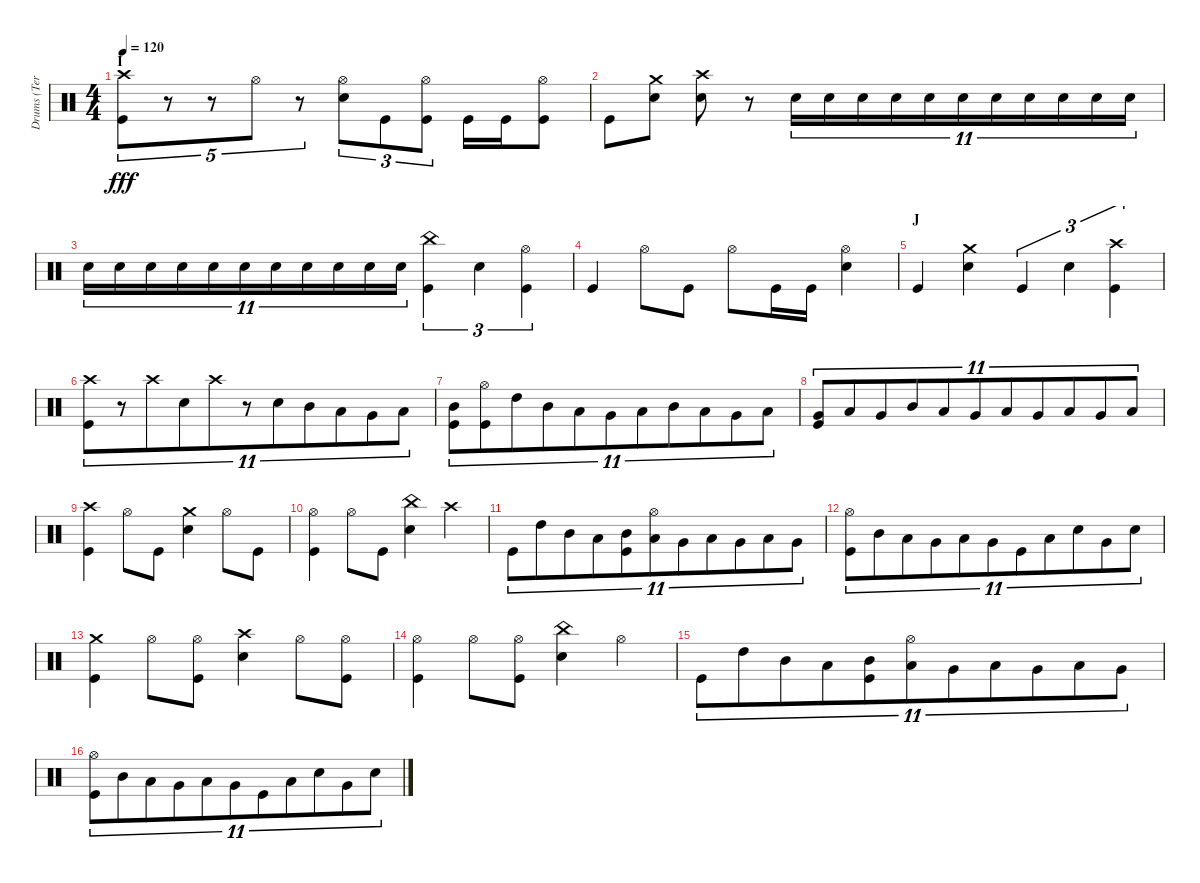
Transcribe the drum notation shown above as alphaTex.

\track ("Drums (Terry Bozzio)" "Drums (Ter") {instrument percussion}
\staff {score}
\articulation defaults
\ts (4 4)
\section ("" "I")
\tempo 120
\clef neutral
\ks c
("Crash high (hit)" "Kick (hit)").8{tu (5 4) dy fff} r.8{tu (5 4)} r.8{tu (5 4)} "Hi-Hat (open)".8{tu (5 4)} r.8{tu (5 4)} ("Hi-Hat (open)" "Snare (hit) 2").8{tu (3 2)} "Kick (hit)".8{tu (3 2)} ("Hi-Hat (open)" "Kick (hit)").8{tu (3 2)} "Kick (hit)".16 "Kick (hit)".16 ("Hi-Hat (open)" "Kick (hit)").8 |
"Kick (hit)".8 ("Crash medium (hit)" "Snare (hit) 2").8 ("Crash high (hit)" "Snare (hit) 2").8 r.8 "Snare (hit) 2".16{tu (11 8)} "Snare (hit) 2".16{tu (11 8)} "Snare (hit) 2".16{tu (11 8)} "Snare (hit) 2".16{tu (11 8)} "Snare (hit) 2".16{tu (11 8)} "Snare (hit) 2".16{tu (11 8)} "Snare (hit) 2".16{tu (11 8)} "Snare (hit) 2".16{tu (11 8)} "Snare (hit) 2".16{tu (11 8)} "Snare (hit) 2".16{tu (11 8)} "Snare (hit) 2".16{tu (11 8)} |
"Snare (hit) 2".16{tu (11 8)} "Snare (hit) 2".16{tu (11 8)} "Snare (hit) 2".16{tu (11 8)} "Snare (hit) 2".16{tu (11 8)} "Snare (hit) 2".16{tu (11 8)} "Snare (hit) 2".16{tu (11 8)} "Snare (hit) 2".16{tu (11 8)} "Snare (hit) 2".16{tu (11 8)} "Snare (hit) 2".16{tu (11 8)} "Snare (hit) 2".16{tu (11 8)} "Snare (hit) 2".16{tu (11 8)} ("China (hit)" "Kick (hit)").4{tu (3 2)} "Snare (hit) 2".4{tu (3 2)} ("Hi-Hat (open)" "Kick (hit)").4{tu (3 2)} |
"Kick (hit)".4 "Hi-Hat (open)".8 "Kick (hit)".8 "Hi-Hat (open)".8 "Kick (hit)".16 "Kick (hit)".16 ("Hi-Hat (open)" "Snare (hit) 2").4 |
\section ("" "J")
"Kick (hit)".4 ("Crash medium (hit)" "Snare (hit) 2").4 "Kick (hit)".4{tu (3 2)} "Snare (hit) 2".4{tu (3 2)} ("Crash high (hit)" "Kick (hit)").4{tu (3 2)} |
("Crash high (hit)" "Kick (hit)").8{tu (11 8)} r.8{tu (11 8)} "Crash high (hit)".8{tu (11 8)} "Snare (hit) 2".8{tu (11 8)} "Crash high (hit)".8{tu (11 8)} r.8{tu (11 8)} "Snare (hit) 2".8{tu (11 8)} "Mid Tom (hit)".8{tu (11 8)} "Low Tom (hit)".8{tu (11 8)} "Very Low Tom (hit)".8{tu (11 8)} "Low Tom (hit)".8{tu (11 8)} |
("Mid Tom (hit)" "Kick (hit)").8{tu (11 8)} ("Hi-Hat (open)" "Kick (hit)").8{tu (11 8)} "High Tom (hit)".8{tu (11 8)} "Mid Tom (hit)".8{tu (11 8)} "Low Tom (hit)".8{tu (11 8)} "Very Low Tom (hit)".8{tu (11 8)} "Low Tom (hit)".8{tu (11 8)} "Mid Tom (hit)".8{tu (11 8)} "Low Tom (hit)".8{tu (11 8)} "Very Low Tom (hit)".8{tu (11 8)} "Low Floor Tom (hit)".8{tu (11 8)} |
("Very Low Tom (hit)" "Kick (hit)").8{tu (11 8)} "Low Tom (hit)".8{tu (11 8)} "Very Low Tom (hit)".8{tu (11 8)} "Mid Tom (hit)".8{tu (11 8)} "Low Tom (hit)".8{tu (11 8)} "Very Low Tom (hit)".8{tu (11 8)} "Low Floor Tom (hit)".8{tu (11 8)} "Very Low Tom (hit)".8{tu (11 8)} "Low Tom (hit)".8{tu (11 8)} "Very Low Tom (hit)".8{tu (11 8)} "Low Floor Tom (hit)".8{tu (11 8)} |
("Crash high (hit)" "Kick (hit)").4 "Hi-Hat (open)".8 "Kick (hit)".8 ("Crash medium (hit)" "Snare (hit) 2").4 "Hi-Hat (open)".8 "Kick (hit)".8 |
("Hi-Hat (open)" "Kick (hit)").4 "Hi-Hat (open)".8 "Kick (hit)".8 ("China (hit)" "Snare (hit) 2").4 "Crash high (hit)".4 |
"Kick (hit)".8{tu (11 8)} "High Tom (hit)".8{tu (11 8)} "Mid Tom (hit)".8{tu (11 8)} "Low Tom (hit)".8{tu (11 8)} ("Mid Tom (hit)" "Kick (hit)").8{tu (11 8)} ("Hi-Hat (open)" "Low Tom (hit)").8{tu (11 8)} "Very Low Tom (hit)".8{tu (11 8)} "Low Floor Tom (hit)".8{tu (11 8)} "Very Low Tom (hit)".8{tu (11 8)} "Low Tom (hit)".8{tu (11 8)} "Very Low Tom (hit)".8{tu (11 8)} |
("Hi-Hat (open)" "Kick (hit)").8{tu (11 8)} "Mid Tom (hit)".8{tu (11 8)} "Low Tom (hit)".8{tu (11 8)} "Very Low Tom (hit)".8{tu (11 8)} "Low Floor Tom (hit)".8{tu (11 8)} "Very Low Tom (hit)".8{tu (11 8)} "Kick (hit)".8{tu (11 8)} "Low Floor Tom (hit)".8{tu (11 8)} "Snare (hit) 2".8{tu (11 8)} "Very Low Tom (hit)".8{tu (11 8)} "Snare (hit) 2".8{tu (11 8)} |
("Crash medium (hit)" "Kick (hit)").4 "Hi-Hat (open)".8 ("Hi-Hat (open)" "Kick (hit)").8 ("Crash high (hit)" "Snare (hit) 2").4 "Hi-Hat (open)".8 ("Hi-Hat (open)" "Kick (hit)").8 |
("Hi-Hat (open)" "Kick (hit)").4 "Hi-Hat (open)".8 ("Hi-Hat (open)" "Kick (hit)").8 ("China (hit)" "Snare (hit) 2").4 "Hi-Hat (open)".4 |
"Kick (hit)".8{tu (11 8)} "High Tom (hit)".8{tu (11 8)} "Mid Tom (hit)".8{tu (11 8)} "Low Tom (hit)".8{tu (11 8)} ("Mid Tom (hit)" "Kick (hit)").8{tu (11 8)} ("Hi-Hat (open)" "Low Tom (hit)").8{tu (11 8)} "Very Low Tom (hit)".8{tu (11 8)} "Low Floor Tom (hit)".8{tu (11 8)} "Very Low Tom (hit)".8{tu (11 8)} "Low Tom (hit)".8{tu (11 8)} "Very Low Tom (hit)".8{tu (11 8)} |
("Hi-Hat (open)" "Kick (hit)").8{tu (11 8)} "Mid Tom (hit)".8{tu (11 8)} "Low Tom (hit)".8{tu (11 8)} "Very Low Tom (hit)".8{tu (11 8)} "Low Floor Tom (hit)".8{tu (11 8)} "Very Low Tom (hit)".8{tu (11 8)} "Kick (hit)".8{tu (11 8)} "Low Floor Tom (hit)".8{tu (11 8)} "Snare (hit) 2".8{tu (11 8)} "Very Low Tom (hit)".8{tu (11 8)} "Snare (hit) 2".8{tu (11 8)}
